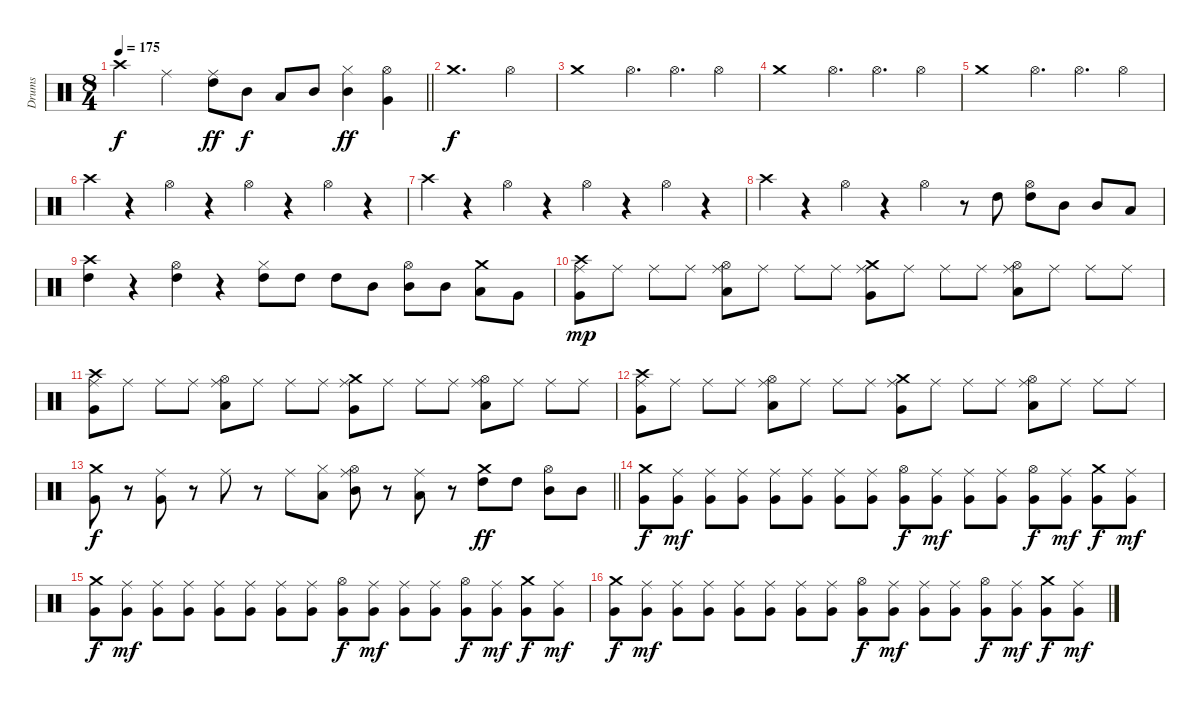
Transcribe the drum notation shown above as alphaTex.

\track ("Drums" "Drums") {instrument percussion}
\staff {score}
\articulation defaults
\ts (8 4)
\tempo 175
\clef neutral
\barLineRight lightlight
\ks c "Crash high (hit)".2{dy f} "Ride (middle)".2
("Ride (middle)" "High Tom (hit)").8{dy ff} "Mid Tom (hit)".8{dy f} "Low Tom (hit)".8 "Mid Tom (hit)".8 ("Hi-Hat (closed)" "Mid Tom (hit)").4{dy ff} ("Hi-Hat (open)" "Very Low Tom (hit)").4 |
\section ("" "")
"Crash medium (hit)".1{d dy f} "Hi-Hat (open)".2 |
"Crash medium (hit)".1 "Hi-Hat (open)".4{d} "Hi-Hat (open)".4{d} "Hi-Hat (open)".4 |
"Crash medium (hit)".1 "Hi-Hat (open)".4{d} "Hi-Hat (open)".4{d} "Hi-Hat (open)".4 |
"Crash medium (hit)".1 "Hi-Hat (open)".4{d} "Hi-Hat (open)".4{d} "Hi-Hat (open)".4 |
"Crash high (hit)".4 r.4 "Hi-Hat (open)".4 r.4 "Hi-Hat (open)".4 r.4 "Hi-Hat (open)".4 r.4 |
"Crash high (hit)".4 r.4 "Hi-Hat (open)".4 r.4 "Hi-Hat (open)".4 r.4 "Hi-Hat (open)".4 r.4 |
"Crash high (hit)".4 r.4 "Hi-Hat (open)".4 r.4 "Hi-Hat (open)".4 r.8 "High Tom (hit)".8 ("Hi-Hat (open)" "High Tom (hit)").8 "Mid Tom (hit)".8 "Mid Tom (hit)".8 "Low Tom (hit)".8 |
("Crash high (hit)" "High Tom (hit)").4 r.4 ("Hi-Hat (open)" "High Tom (hit)").4 r.4 ("Hi-Hat (closed)" "High Tom (hit)").8 "High Tom (hit)".8 "High Tom (hit)".8 "Mid Tom (hit)".8 ("Hi-Hat (open)" "Mid Tom (hit)").8 "Mid Tom (hit)".8 ("Crash medium (hit)" "Low Tom (hit)").8 "Very Low Tom (hit)".8 |
("Crash high (hit)" "Ride (middle)" "Very Low Tom (hit)").8{dy mp} "Ride (middle)".8 "Ride (middle)".8 "Ride (middle)".8 ("Hi-Hat (open)" "Ride (middle)" "Low Tom (hit)").8 "Ride (middle)".8 "Ride (middle)".8 "Ride (middle)".8 ("Crash medium (hit)" "Ride (middle)" "Very Low Tom (hit)").8 "Ride (middle)".8 "Ride (middle)".8 "Ride (middle)".8 ("Hi-Hat (open)" "Ride (middle)" "Low Tom (hit)").8 "Ride (middle)".8 "Ride (middle)".8 "Ride (middle)".8 |
("Crash high (hit)" "Ride (middle)" "Very Low Tom (hit)").8 "Ride (middle)".8 "Ride (middle)".8 "Ride (middle)".8 ("Hi-Hat (open)" "Ride (middle)" "Low Tom (hit)").8 "Ride (middle)".8 "Ride (middle)".8 "Ride (middle)".8 ("Crash medium (hit)" "Ride (middle)" "Very Low Tom (hit)").8 "Ride (middle)".8 "Ride (middle)".8 "Ride (middle)".8 ("Hi-Hat (open)" "Ride (middle)" "Low Tom (hit)").8 "Ride (middle)".8 "Ride (middle)".8 "Ride (middle)".8 |
("Crash high (hit)" "Ride (middle)" "Very Low Tom (hit)").8 "Ride (middle)".8 "Ride (middle)".8 "Ride (middle)".8 ("Hi-Hat (open)" "Ride (middle)" "Low Tom (hit)").8 "Ride (middle)".8 "Ride (middle)".8 "Ride (middle)".8 ("Crash medium (hit)" "Ride (middle)" "Very Low Tom (hit)").8 "Ride (middle)".8 "Ride (middle)".8 "Ride (middle)".8 ("Hi-Hat (open)" "Ride (middle)" "Low Tom (hit)").8 "Ride (middle)".8 "Ride (middle)".8 "Ride (middle)".8 |
\barLineRight lightlight
("Crash medium (hit)" "Very Low Tom (hit)").8{dy f} r.8 ("Ride (middle)" "Very Low Tom (hit)").8 r.8 "Ride (middle)".8 r.8 "Ride (middle)".8 ("Hi-Hat (closed)" "Low Tom (hit)").8 ("Hi-Hat (open)" "Ride (middle)" "Mid Tom (hit)").8 r.8 ("Ride (middle)" "Low Tom (hit)").8 r.8 ("Crash medium (hit)" "High Tom (hit)").8{dy ff} "High Tom (hit)".8 ("Hi-Hat (open)" "Mid Tom (hit)").8 "Mid Tom (hit)".8 |
\section ("" "")
("Crash medium (hit)" "Very Low Tom (hit)").8{dy f} ("Ride (middle)" "Very Low Tom (hit)").8{dy mf} ("Ride (middle)" "Very Low Tom (hit)").8 ("Ride (middle)" "Very Low Tom (hit)").8 ("Ride (middle)" "Very Low Tom (hit)").8 ("Ride (middle)" "Very Low Tom (hit)").8 ("Ride (middle)" "Very Low Tom (hit)").8 ("Ride (middle)" "Very Low Tom (hit)").8 ("Hi-Hat (open)" "Very Low Tom (hit)").8{dy f} ("Ride (middle)" "Very Low Tom (hit)").8{dy mf} ("Ride (middle)" "Very Low Tom (hit)").8 ("Ride (middle)" "Very Low Tom (hit)").8 ("Hi-Hat (open)" "Very Low Tom (hit)").8{dy f} ("Ride (middle)" "Very Low Tom (hit)").8{dy mf} ("Crash medium (hit)" "Very Low Tom (hit)").8{dy f} ("Ride (middle)" "Very Low Tom (hit)").8{dy mf} |
("Crash medium (hit)" "Very Low Tom (hit)").8{dy f} ("Ride (middle)" "Very Low Tom (hit)").8{dy mf} ("Ride (middle)" "Very Low Tom (hit)").8 ("Ride (middle)" "Very Low Tom (hit)").8 ("Ride (middle)" "Very Low Tom (hit)").8 ("Ride (middle)" "Very Low Tom (hit)").8 ("Ride (middle)" "Very Low Tom (hit)").8 ("Ride (middle)" "Very Low Tom (hit)").8 ("Hi-Hat (open)" "Very Low Tom (hit)").8{dy f} ("Ride (middle)" "Very Low Tom (hit)").8{dy mf} ("Ride (middle)" "Very Low Tom (hit)").8 ("Ride (middle)" "Very Low Tom (hit)").8 ("Hi-Hat (open)" "Very Low Tom (hit)").8{dy f} ("Ride (middle)" "Very Low Tom (hit)").8{dy mf} ("Crash medium (hit)" "Very Low Tom (hit)").8{dy f} ("Ride (middle)" "Very Low Tom (hit)").8{dy mf} |
("Crash medium (hit)" "Very Low Tom (hit)").8{dy f} ("Ride (middle)" "Very Low Tom (hit)").8{dy mf} ("Ride (middle)" "Very Low Tom (hit)").8 ("Ride (middle)" "Very Low Tom (hit)").8 ("Ride (middle)" "Very Low Tom (hit)").8 ("Ride (middle)" "Very Low Tom (hit)").8 ("Ride (middle)" "Very Low Tom (hit)").8 ("Ride (middle)" "Very Low Tom (hit)").8 ("Hi-Hat (open)" "Very Low Tom (hit)").8{dy f} ("Ride (middle)" "Very Low Tom (hit)").8{dy mf} ("Ride (middle)" "Very Low Tom (hit)").8 ("Ride (middle)" "Very Low Tom (hit)").8 ("Hi-Hat (open)" "Very Low Tom (hit)").8{dy f} ("Ride (middle)" "Very Low Tom (hit)").8{dy mf} ("Crash medium (hit)" "Very Low Tom (hit)").8{dy f} ("Ride (middle)" "Very Low Tom (hit)").8{dy mf}
